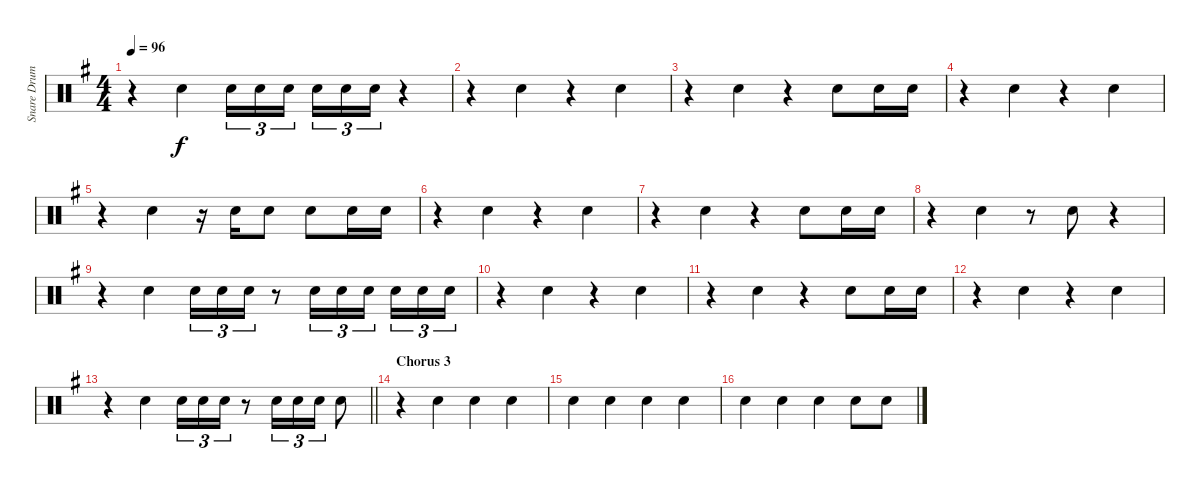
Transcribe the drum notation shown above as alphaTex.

\track ("Snare Drum - reverb" "Snare Drum") {instrument percussion}
\staff {score}
\articulation defaults
\ts (4 4)
\tempo 96
\clef neutral
\ks g
r.4{dy f beam merge} "Snare (hit) 2".4 "Snare (hit) 2".16{tu (3 2)} "Snare (hit) 2".16{tu (3 2)} "Snare (hit) 2".16{tu (3 2) beam splitsecondary} "Snare (hit) 2".16{tu (3 2)} "Snare (hit) 2".16{tu (3 2)} "Snare (hit) 2".16{tu (3 2)} r.4 |
r.4{beam merge} "Snare (hit) 2".4 r.4{beam merge} "Snare (hit) 2".4 |
r.4{beam merge} "Snare (hit) 2".4 r.4 "Snare (hit) 2".8 "Snare (hit) 2".16 "Snare (hit) 2".16 |
r.4{beam merge} "Snare (hit) 2".4 r.4{beam merge} "Snare (hit) 2".4 |
r.4{beam merge} "Snare (hit) 2".4 r.16 "Snare (hit) 2".16 "Snare (hit) 2".8 "Snare (hit) 2".8 "Snare (hit) 2".16 "Snare (hit) 2".16 |
r.4{beam merge} "Snare (hit) 2".4 r.4{beam merge} "Snare (hit) 2".4 |
r.4{beam merge} "Snare (hit) 2".4 r.4 "Snare (hit) 2".8 "Snare (hit) 2".16 "Snare (hit) 2".16 |
r.4{beam merge} "Snare (hit) 2".4 r.8 "Snare (hit) 2".8 r.4 |
r.4{beam merge} "Snare (hit) 2".4 "Snare (hit) 2".16{tu (3 2)} "Snare (hit) 2".16{tu (3 2)} "Snare (hit) 2".16{tu (3 2)} r.8 "Snare (hit) 2".16{tu (3 2)} "Snare (hit) 2".16{tu (3 2)} "Snare (hit) 2".16{tu (3 2) beam splitsecondary} "Snare (hit) 2".16{tu (3 2)} "Snare (hit) 2".16{tu (3 2)} "Snare (hit) 2".16{tu (3 2)} |
r.4{beam merge} "Snare (hit) 2".4 r.4{beam merge} "Snare (hit) 2".4 |
r.4{beam merge} "Snare (hit) 2".4 r.4 "Snare (hit) 2".8 "Snare (hit) 2".16 "Snare (hit) 2".16 |
r.4{beam merge} "Snare (hit) 2".4 r.4{beam merge} "Snare (hit) 2".4 |
\barLineRight lightlight
r.4{beam merge} "Snare (hit) 2".4 "Snare (hit) 2".16{tu (3 2)} "Snare (hit) 2".16{tu (3 2)} "Snare (hit) 2".16{tu (3 2)} r.8 "Snare (hit) 2".16{tu (3 2)} "Snare (hit) 2".16{tu (3 2)} "Snare (hit) 2".16{tu (3 2)} "Snare (hit) 2".8 |
\section ("" "Chorus 3")
r.4{beam merge} "Snare (hit) 2".4{beam merge} "Snare (hit) 2".4{beam merge} "Snare (hit) 2".4 |
"Snare (hit) 2".4{beam merge} "Snare (hit) 2".4{beam merge} "Snare (hit) 2".4{beam merge} "Snare (hit) 2".4 |
"Snare (hit) 2".4{beam merge} "Snare (hit) 2".4{beam merge} "Snare (hit) 2".4 "Snare (hit) 2".8 "Snare (hit) 2".8
